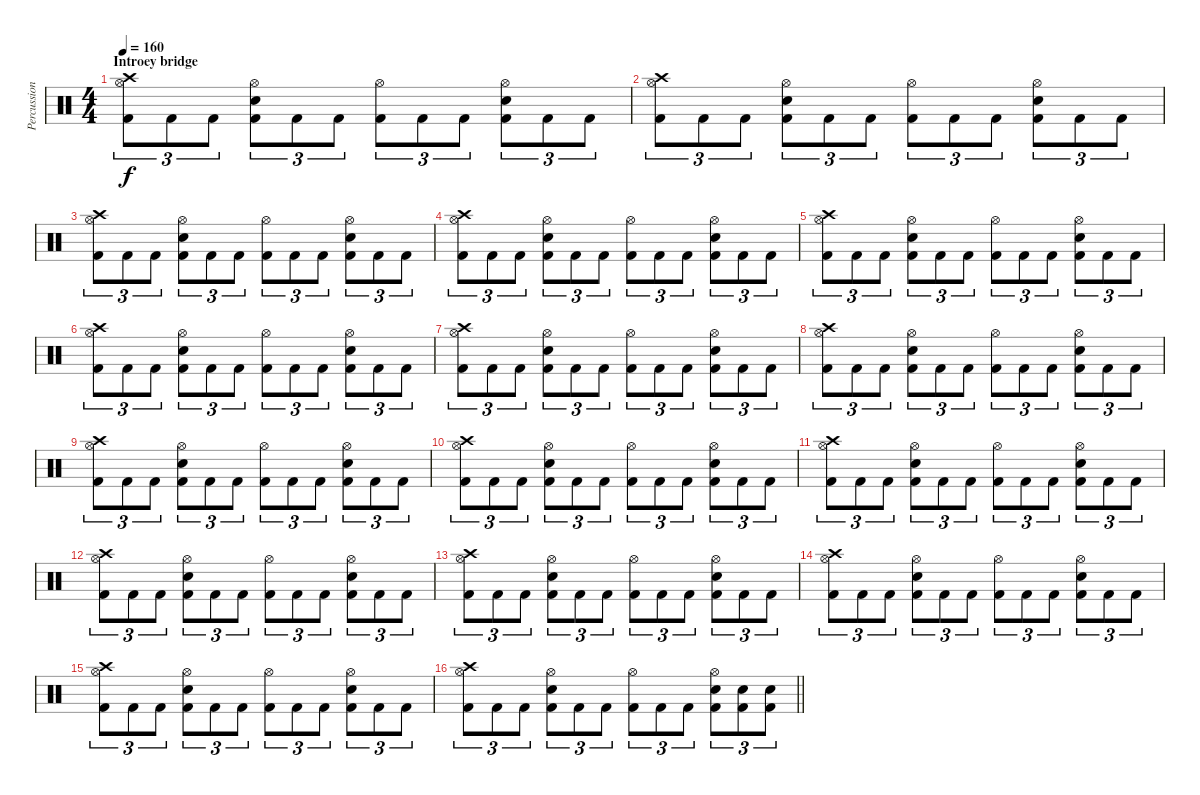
\track ("Percussion" "Percussion") {instrument percussion}
\staff {score}
\articulation defaults
\ts (4 4)
\section ("" "Introey bridge")
\tempo 160
\clef neutral
\ks c
("Crash high (hit)" "Hi-Hat (open)" "Kick (hit) 2").8{tu (3 2) dy f} "Kick (hit) 2".8{tu (3 2)} "Kick (hit) 2".8{tu (3 2)} ("Hi-Hat (open)" "Snare (hit) 2" "Kick (hit) 2").8{tu (3 2)} "Kick (hit) 2".8{tu (3 2)} "Kick (hit) 2".8{tu (3 2)} ("Hi-Hat (open)" "Kick (hit) 2").8{tu (3 2)} "Kick (hit) 2".8{tu (3 2)} "Kick (hit) 2".8{tu (3 2)} ("Hi-Hat (open)" "Snare (hit) 2" "Kick (hit) 2").8{tu (3 2)} "Kick (hit) 2".8{tu (3 2)} "Kick (hit) 2".8{tu (3 2)} |
("Crash high (hit)" "Hi-Hat (open)" "Kick (hit) 2").8{tu (3 2)} "Kick (hit) 2".8{tu (3 2)} "Kick (hit) 2".8{tu (3 2)} ("Hi-Hat (open)" "Snare (hit) 2" "Kick (hit) 2").8{tu (3 2)} "Kick (hit) 2".8{tu (3 2)} "Kick (hit) 2".8{tu (3 2)} ("Hi-Hat (open)" "Kick (hit) 2").8{tu (3 2)} "Kick (hit) 2".8{tu (3 2)} "Kick (hit) 2".8{tu (3 2)} ("Hi-Hat (open)" "Snare (hit) 2" "Kick (hit) 2").8{tu (3 2)} "Kick (hit) 2".8{tu (3 2)} "Kick (hit) 2".8{tu (3 2)} |
("Crash high (hit)" "Hi-Hat (open)" "Kick (hit) 2").8{tu (3 2)} "Kick (hit) 2".8{tu (3 2)} "Kick (hit) 2".8{tu (3 2)} ("Hi-Hat (open)" "Snare (hit) 2" "Kick (hit) 2").8{tu (3 2)} "Kick (hit) 2".8{tu (3 2)} "Kick (hit) 2".8{tu (3 2)} ("Hi-Hat (open)" "Kick (hit) 2").8{tu (3 2)} "Kick (hit) 2".8{tu (3 2)} "Kick (hit) 2".8{tu (3 2)} ("Hi-Hat (open)" "Snare (hit) 2" "Kick (hit) 2").8{tu (3 2)} "Kick (hit) 2".8{tu (3 2)} "Kick (hit) 2".8{tu (3 2)} |
("Crash high (hit)" "Hi-Hat (open)" "Kick (hit) 2").8{tu (3 2)} "Kick (hit) 2".8{tu (3 2)} "Kick (hit) 2".8{tu (3 2)} ("Hi-Hat (open)" "Snare (hit) 2" "Kick (hit) 2").8{tu (3 2)} "Kick (hit) 2".8{tu (3 2)} "Kick (hit) 2".8{tu (3 2)} ("Hi-Hat (open)" "Kick (hit) 2").8{tu (3 2)} "Kick (hit) 2".8{tu (3 2)} "Kick (hit) 2".8{tu (3 2)} ("Hi-Hat (open)" "Snare (hit) 2" "Kick (hit) 2").8{tu (3 2)} "Kick (hit) 2".8{tu (3 2)} "Kick (hit) 2".8{tu (3 2)} |
("Crash high (hit)" "Hi-Hat (open)" "Kick (hit) 2").8{tu (3 2)} "Kick (hit) 2".8{tu (3 2)} "Kick (hit) 2".8{tu (3 2)} ("Hi-Hat (open)" "Snare (hit) 2" "Kick (hit) 2").8{tu (3 2)} "Kick (hit) 2".8{tu (3 2)} "Kick (hit) 2".8{tu (3 2)} ("Hi-Hat (open)" "Kick (hit) 2").8{tu (3 2)} "Kick (hit) 2".8{tu (3 2)} "Kick (hit) 2".8{tu (3 2)} ("Hi-Hat (open)" "Snare (hit) 2" "Kick (hit) 2").8{tu (3 2)} "Kick (hit) 2".8{tu (3 2)} "Kick (hit) 2".8{tu (3 2)} |
("Crash high (hit)" "Hi-Hat (open)" "Kick (hit) 2").8{tu (3 2)} "Kick (hit) 2".8{tu (3 2)} "Kick (hit) 2".8{tu (3 2)} ("Hi-Hat (open)" "Snare (hit) 2" "Kick (hit) 2").8{tu (3 2)} "Kick (hit) 2".8{tu (3 2)} "Kick (hit) 2".8{tu (3 2)} ("Hi-Hat (open)" "Kick (hit) 2").8{tu (3 2)} "Kick (hit) 2".8{tu (3 2)} "Kick (hit) 2".8{tu (3 2)} ("Hi-Hat (open)" "Snare (hit) 2" "Kick (hit) 2").8{tu (3 2)} "Kick (hit) 2".8{tu (3 2)} "Kick (hit) 2".8{tu (3 2)} |
("Crash high (hit)" "Hi-Hat (open)" "Kick (hit) 2").8{tu (3 2)} "Kick (hit) 2".8{tu (3 2)} "Kick (hit) 2".8{tu (3 2)} ("Hi-Hat (open)" "Snare (hit) 2" "Kick (hit) 2").8{tu (3 2)} "Kick (hit) 2".8{tu (3 2)} "Kick (hit) 2".8{tu (3 2)} ("Hi-Hat (open)" "Kick (hit) 2").8{tu (3 2)} "Kick (hit) 2".8{tu (3 2)} "Kick (hit) 2".8{tu (3 2)} ("Hi-Hat (open)" "Snare (hit) 2" "Kick (hit) 2").8{tu (3 2)} "Kick (hit) 2".8{tu (3 2)} "Kick (hit) 2".8{tu (3 2)} |
("Crash high (hit)" "Hi-Hat (open)" "Kick (hit) 2").8{tu (3 2)} "Kick (hit) 2".8{tu (3 2)} "Kick (hit) 2".8{tu (3 2)} ("Hi-Hat (open)" "Snare (hit) 2" "Kick (hit) 2").8{tu (3 2)} "Kick (hit) 2".8{tu (3 2)} "Kick (hit) 2".8{tu (3 2)} ("Hi-Hat (open)" "Kick (hit) 2").8{tu (3 2)} "Kick (hit) 2".8{tu (3 2)} "Kick (hit) 2".8{tu (3 2)} ("Hi-Hat (open)" "Snare (hit) 2" "Kick (hit) 2").8{tu (3 2)} "Kick (hit) 2".8{tu (3 2)} "Kick (hit) 2".8{tu (3 2)} |
("Crash high (hit)" "Hi-Hat (open)" "Kick (hit) 2").8{tu (3 2)} "Kick (hit) 2".8{tu (3 2)} "Kick (hit) 2".8{tu (3 2)} ("Hi-Hat (open)" "Snare (hit) 2" "Kick (hit) 2").8{tu (3 2)} "Kick (hit) 2".8{tu (3 2)} "Kick (hit) 2".8{tu (3 2)} ("Hi-Hat (open)" "Kick (hit) 2").8{tu (3 2)} "Kick (hit) 2".8{tu (3 2)} "Kick (hit) 2".8{tu (3 2)} ("Hi-Hat (open)" "Snare (hit) 2" "Kick (hit) 2").8{tu (3 2)} "Kick (hit) 2".8{tu (3 2)} "Kick (hit) 2".8{tu (3 2)} |
("Crash high (hit)" "Hi-Hat (open)" "Kick (hit) 2").8{tu (3 2)} "Kick (hit) 2".8{tu (3 2)} "Kick (hit) 2".8{tu (3 2)} ("Hi-Hat (open)" "Snare (hit) 2" "Kick (hit) 2").8{tu (3 2)} "Kick (hit) 2".8{tu (3 2)} "Kick (hit) 2".8{tu (3 2)} ("Hi-Hat (open)" "Kick (hit) 2").8{tu (3 2)} "Kick (hit) 2".8{tu (3 2)} "Kick (hit) 2".8{tu (3 2)} ("Hi-Hat (open)" "Snare (hit) 2" "Kick (hit) 2").8{tu (3 2)} "Kick (hit) 2".8{tu (3 2)} "Kick (hit) 2".8{tu (3 2)} |
("Crash high (hit)" "Hi-Hat (open)" "Kick (hit) 2").8{tu (3 2)} "Kick (hit) 2".8{tu (3 2)} "Kick (hit) 2".8{tu (3 2)} ("Hi-Hat (open)" "Snare (hit) 2" "Kick (hit) 2").8{tu (3 2)} "Kick (hit) 2".8{tu (3 2)} "Kick (hit) 2".8{tu (3 2)} ("Hi-Hat (open)" "Kick (hit) 2").8{tu (3 2)} "Kick (hit) 2".8{tu (3 2)} "Kick (hit) 2".8{tu (3 2)} ("Hi-Hat (open)" "Snare (hit) 2" "Kick (hit) 2").8{tu (3 2)} "Kick (hit) 2".8{tu (3 2)} "Kick (hit) 2".8{tu (3 2)} |
("Crash high (hit)" "Hi-Hat (open)" "Kick (hit) 2").8{tu (3 2)} "Kick (hit) 2".8{tu (3 2)} "Kick (hit) 2".8{tu (3 2)} ("Hi-Hat (open)" "Snare (hit) 2" "Kick (hit) 2").8{tu (3 2)} "Kick (hit) 2".8{tu (3 2)} "Kick (hit) 2".8{tu (3 2)} ("Hi-Hat (open)" "Kick (hit) 2").8{tu (3 2)} "Kick (hit) 2".8{tu (3 2)} "Kick (hit) 2".8{tu (3 2)} ("Hi-Hat (open)" "Snare (hit) 2" "Kick (hit) 2").8{tu (3 2)} "Kick (hit) 2".8{tu (3 2)} "Kick (hit) 2".8{tu (3 2)} |
("Crash high (hit)" "Hi-Hat (open)" "Kick (hit) 2").8{tu (3 2)} "Kick (hit) 2".8{tu (3 2)} "Kick (hit) 2".8{tu (3 2)} ("Hi-Hat (open)" "Snare (hit) 2" "Kick (hit) 2").8{tu (3 2)} "Kick (hit) 2".8{tu (3 2)} "Kick (hit) 2".8{tu (3 2)} ("Hi-Hat (open)" "Kick (hit) 2").8{tu (3 2)} "Kick (hit) 2".8{tu (3 2)} "Kick (hit) 2".8{tu (3 2)} ("Hi-Hat (open)" "Snare (hit) 2" "Kick (hit) 2").8{tu (3 2)} "Kick (hit) 2".8{tu (3 2)} "Kick (hit) 2".8{tu (3 2)} |
("Crash high (hit)" "Hi-Hat (open)" "Kick (hit) 2").8{tu (3 2)} "Kick (hit) 2".8{tu (3 2)} "Kick (hit) 2".8{tu (3 2)} ("Hi-Hat (open)" "Snare (hit) 2" "Kick (hit) 2").8{tu (3 2)} "Kick (hit) 2".8{tu (3 2)} "Kick (hit) 2".8{tu (3 2)} ("Hi-Hat (open)" "Kick (hit) 2").8{tu (3 2)} "Kick (hit) 2".8{tu (3 2)} "Kick (hit) 2".8{tu (3 2)} ("Hi-Hat (open)" "Snare (hit) 2" "Kick (hit) 2").8{tu (3 2)} "Kick (hit) 2".8{tu (3 2)} "Kick (hit) 2".8{tu (3 2)} |
("Crash high (hit)" "Hi-Hat (open)" "Kick (hit) 2").8{tu (3 2)} "Kick (hit) 2".8{tu (3 2)} "Kick (hit) 2".8{tu (3 2)} ("Hi-Hat (open)" "Snare (hit) 2" "Kick (hit) 2").8{tu (3 2)} "Kick (hit) 2".8{tu (3 2)} "Kick (hit) 2".8{tu (3 2)} ("Hi-Hat (open)" "Kick (hit) 2").8{tu (3 2)} "Kick (hit) 2".8{tu (3 2)} "Kick (hit) 2".8{tu (3 2)} ("Hi-Hat (open)" "Snare (hit) 2" "Kick (hit) 2").8{tu (3 2)} "Kick (hit) 2".8{tu (3 2)} "Kick (hit) 2".8{tu (3 2)} |
\barLineRight lightlight
("Crash high (hit)" "Hi-Hat (open)" "Kick (hit) 2").8{tu (3 2)} "Kick (hit) 2".8{tu (3 2)} "Kick (hit) 2".8{tu (3 2)} ("Hi-Hat (open)" "Snare (hit) 2" "Kick (hit) 2").8{tu (3 2)} "Kick (hit) 2".8{tu (3 2)} "Kick (hit) 2".8{tu (3 2)} ("Hi-Hat (open)" "Kick (hit) 2").8{tu (3 2)} "Kick (hit) 2".8{tu (3 2)} "Kick (hit) 2".8{tu (3 2)} ("Hi-Hat (open)" "Snare (hit) 2" "Kick (hit) 2").8{tu (3 2)} ("Snare (hit) 2" "Kick (hit) 2").8{tu (3 2)} ("Snare (hit) 2" "Kick (hit) 2").8{tu (3 2)}
